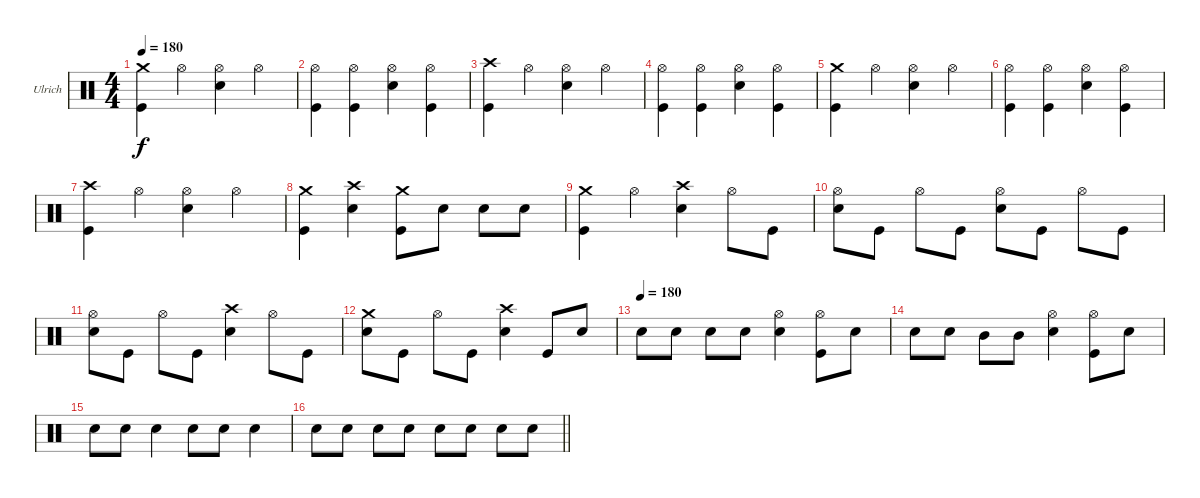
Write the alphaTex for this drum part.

\bracketExtendMode groupsimilarinstruments
\firstSystemTrackNameOrientation horizontal
\otherSystemsTrackNameOrientation horizontal
\track ("Drumkit" "Ulrich") {instrument percussion}
\staff {score}
\articulation defaults
\ts (4 4)
\beaming (8 2 2 2 2)
\tempo 180
\clef neutral
\ks c
("Crash medium (hit)" "Kick (hit)").4{dy f} "Hi-Hat (open)".4 ("Hi-Hat (open)" "Snare (hit) 2").4 "Hi-Hat (open)".4 |
("Hi-Hat (open)" "Kick (hit)").4 ("Hi-Hat (open)" "Kick (hit)").4 ("Hi-Hat (open)" "Snare (hit) 2").4 ("Hi-Hat (open)" "Kick (hit)").4 |
("Crash high (hit)" "Kick (hit)").4 "Hi-Hat (open)".4 ("Hi-Hat (open)" "Snare (hit) 2").4 "Hi-Hat (open)".4 |
("Hi-Hat (open)" "Kick (hit)").4 ("Hi-Hat (open)" "Kick (hit)").4 ("Hi-Hat (open)" "Snare (hit) 2").4 ("Hi-Hat (open)" "Kick (hit)").4 |
("Crash medium (hit)" "Kick (hit)").4 "Hi-Hat (open)".4 ("Hi-Hat (open)" "Snare (hit) 2").4 "Hi-Hat (open)".4 |
("Hi-Hat (open)" "Kick (hit)").4 ("Hi-Hat (open)" "Kick (hit)").4 ("Hi-Hat (open)" "Snare (hit) 2").4 ("Hi-Hat (open)" "Kick (hit)").4 |
("Crash high (hit)" "Kick (hit)").4 "Hi-Hat (open)".4 ("Hi-Hat (open)" "Snare (hit) 2").4 "Hi-Hat (open)".4 |
("Crash medium (hit)" "Kick (hit)").4 ("Crash high (hit)" "Snare (hit) 2").4 ("Crash medium (hit)" "Kick (hit)").8 "Snare (hit) 2".8 "Snare (hit) 2".8 "Snare (hit) 2".8 |
("Crash medium (hit)" "Kick (hit)").4 "Hi-Hat (open)".4 ("Crash high (hit)" "Snare (hit) 2").4 "Hi-Hat (open)".8 "Kick (hit)".8 |
("Hi-Hat (open)" "Snare (hit) 2").8 "Kick (hit)".8 "Hi-Hat (open)".8 "Kick (hit)".8 ("Hi-Hat (open)" "Snare (hit) 2").8 "Kick (hit)".8 "Hi-Hat (open)".8 "Kick (hit)".8 |
("Hi-Hat (open)" "Snare (hit) 2").8 "Kick (hit)".8 "Hi-Hat (open)".8 "Kick (hit)".8 ("Crash high (hit)" "Snare (hit) 2").4 "Hi-Hat (open)".8 "Kick (hit)".8 |
("Crash medium (hit)" "Snare (hit) 2").8 "Kick (hit)".8 "Hi-Hat (open)".8 "Kick (hit)".8 ("Crash high (hit)" "Snare (hit) 2").4 "Kick (hit)".8 "Snare (hit) 2".8 |
\tempo (180)
"Snare (hit) 2".8 "Snare (hit) 2".8 "Snare (hit) 2".8 "Snare (hit) 2".8 ("Hi-Hat (open)" "Snare (hit) 2").4 ("Hi-Hat (open)" "Kick (hit)").8 "Snare (hit) 2".8 |
"Snare (hit) 2".8 "Snare (hit) 2".8 "Mid Tom (hit)".8 "Mid Tom (hit)".8 ("Hi-Hat (open)" "Snare (hit) 2").4 ("Hi-Hat (open)" "Kick (hit)").8 "Snare (hit) 2".8 |
"Snare (hit) 2".8 "Snare (hit) 2".8 "Snare (hit) 2".4 "Snare (hit) 2".8 "Snare (hit) 2".8 "Snare (hit) 2".4 |
\barLineRight lightlight "Snare (hit) 2".8 "Snare (hit) 2".8 "Snare (hit) 2".8 "Snare (hit) 2".8 "Snare (hit) 2".8 "Snare (hit) 2".8 "Snare (hit) 2".8 "Snare (hit) 2".8
